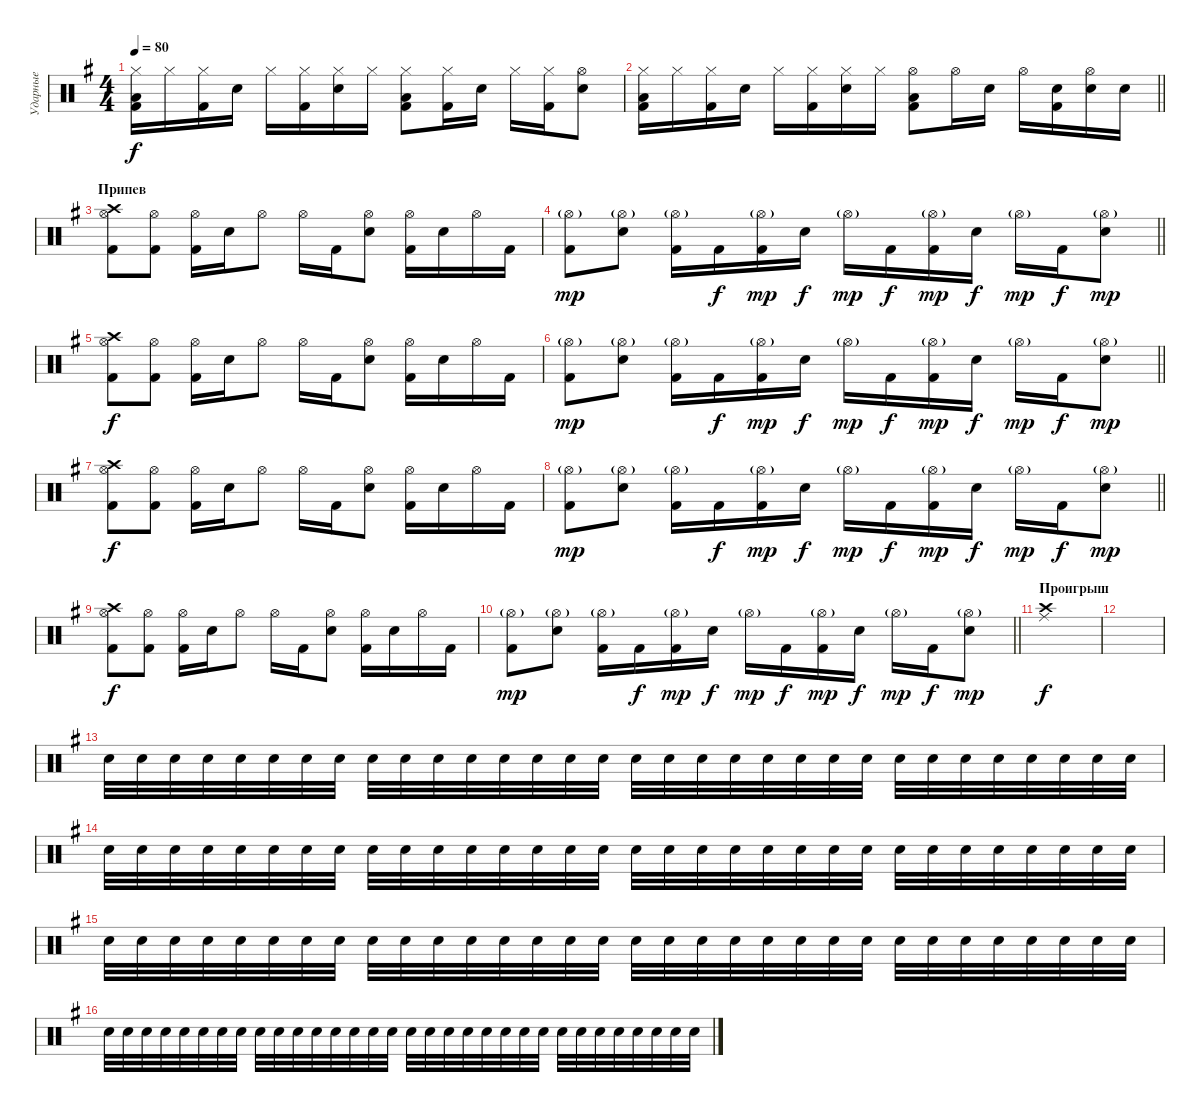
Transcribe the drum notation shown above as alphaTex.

\track ("Ударные" "Ударные") {instrument percussion}
\staff {score}
\articulation defaults
\ts (4 4)
\tempo 80
\clef neutral
\ks eminor
("Hi-Hat (closed)" "Low Tom (hit)" "Kick (hit) 2").16{dy f} "Hi-Hat (closed)".16 ("Hi-Hat (closed)" "Kick (hit) 2").16 "Electric Snare (hit)".16 "Hi-Hat (closed)".16 ("Hi-Hat (closed)" "Kick (hit) 2").16 ("Hi-Hat (closed)" "Electric Snare (hit)").16 "Hi-Hat (closed)".16 ("Hi-Hat (closed)" "Low Tom (hit)" "Kick (hit) 2").8 ("Hi-Hat (closed)" "Kick (hit) 2").16 "Electric Snare (hit)".16 "Hi-Hat (closed)".16 ("Hi-Hat (closed)" "Kick (hit) 2").16 ("Hi-Hat (open)" "Electric Snare (hit)").8 |
\barLineRight lightlight
("Hi-Hat (closed)" "Low Tom (hit)" "Kick (hit) 2").16 "Hi-Hat (closed)".16 ("Hi-Hat (closed)" "Kick (hit) 2").16 "Electric Snare (hit)".16 "Hi-Hat (closed)".16 ("Hi-Hat (closed)" "Kick (hit) 2").16 ("Hi-Hat (closed)" "Electric Snare (hit)").16 "Hi-Hat (closed)".16 ("Hi-Hat (open)" "Low Tom (hit)" "Kick (hit) 2").8 "Hi-Hat (open)".16 "Electric Snare (hit)".16 "Hi-Hat (open)".16 ("Electric Snare (hit)" "Kick (hit) 2").16 ("Hi-Hat (open)" "Electric Snare (hit)").16 "Electric Snare (hit)".16 |
\section ("" "Припев")
("Crash high (hit)" "Hi-Hat (open)" "Kick (hit) 2").8 ("Hi-Hat (open)" "Kick (hit) 2").8 ("Hi-Hat (open)" "Kick (hit) 2").16 "Electric Snare (hit)".16 "Hi-Hat (open)".8 "Hi-Hat (open)".16 "Kick (hit) 2".16 ("Hi-Hat (open)" "Electric Snare (hit)").8 ("Hi-Hat (open)" "Kick (hit) 2").16 "Electric Snare (hit)".16 "Hi-Hat (open)".16 "Kick (hit) 2".16 |
\barLineRight lightlight
("Hi-Hat (open)"{g} "Kick (hit) 2").8{dy mp} ("Hi-Hat (open)"{g} "Electric Snare (hit)").8 ("Hi-Hat (open)"{g} "Kick (hit) 2").16 "Kick (hit) 2".16{dy f} ("Hi-Hat (open)"{g} "Kick (hit) 2").16{dy mp} "Electric Snare (hit)".16{dy f} "Hi-Hat (open)"{g}.16{dy mp} "Kick (hit) 2".16{dy f} ("Hi-Hat (open)"{g} "Kick (hit) 2").16{dy mp} "Electric Snare (hit)".16{dy f} "Hi-Hat (open)"{g}.16{dy mp} "Kick (hit) 2".16{dy f} ("Hi-Hat (open)"{g} "Electric Snare (hit)").8{dy mp} |
("Crash high (hit)" "Hi-Hat (open)" "Kick (hit) 2").8{dy f} ("Hi-Hat (open)" "Kick (hit) 2").8 ("Hi-Hat (open)" "Kick (hit) 2").16 "Electric Snare (hit)".16 "Hi-Hat (open)".8 "Hi-Hat (open)".16 "Kick (hit) 2".16 ("Hi-Hat (open)" "Electric Snare (hit)").8 ("Hi-Hat (open)" "Kick (hit) 2").16 "Electric Snare (hit)".16 "Hi-Hat (open)".16 "Kick (hit) 2".16 |
\barLineRight lightlight
("Hi-Hat (open)"{g} "Kick (hit) 2").8{dy mp} ("Hi-Hat (open)"{g} "Electric Snare (hit)").8 ("Hi-Hat (open)"{g} "Kick (hit) 2").16 "Kick (hit) 2".16{dy f} ("Hi-Hat (open)"{g} "Kick (hit) 2").16{dy mp} "Electric Snare (hit)".16{dy f} "Hi-Hat (open)"{g}.16{dy mp} "Kick (hit) 2".16{dy f} ("Hi-Hat (open)"{g} "Kick (hit) 2").16{dy mp} "Electric Snare (hit)".16{dy f} "Hi-Hat (open)"{g}.16{dy mp} "Kick (hit) 2".16{dy f} ("Hi-Hat (open)"{g} "Electric Snare (hit)").8{dy mp} |
("Crash high (hit)" "Hi-Hat (open)" "Kick (hit) 2").8{dy f} ("Hi-Hat (open)" "Kick (hit) 2").8 ("Hi-Hat (open)" "Kick (hit) 2").16 "Electric Snare (hit)".16 "Hi-Hat (open)".8 "Hi-Hat (open)".16 "Kick (hit) 2".16 ("Hi-Hat (open)" "Electric Snare (hit)").8 ("Hi-Hat (open)" "Kick (hit) 2").16 "Electric Snare (hit)".16 "Hi-Hat (open)".16 "Kick (hit) 2".16 |
\barLineRight lightlight
("Hi-Hat (open)"{g} "Kick (hit) 2").8{dy mp} ("Hi-Hat (open)"{g} "Electric Snare (hit)").8 ("Hi-Hat (open)"{g} "Kick (hit) 2").16 "Kick (hit) 2".16{dy f} ("Hi-Hat (open)"{g} "Kick (hit) 2").16{dy mp} "Electric Snare (hit)".16{dy f} "Hi-Hat (open)"{g}.16{dy mp} "Kick (hit) 2".16{dy f} ("Hi-Hat (open)"{g} "Kick (hit) 2").16{dy mp} "Electric Snare (hit)".16{dy f} "Hi-Hat (open)"{g}.16{dy mp} "Kick (hit) 2".16{dy f} ("Hi-Hat (open)"{g} "Electric Snare (hit)").8{dy mp} |
("Crash high (hit)" "Hi-Hat (open)" "Kick (hit) 2").8{dy f} ("Hi-Hat (open)" "Kick (hit) 2").8 ("Hi-Hat (open)" "Kick (hit) 2").16 "Electric Snare (hit)".16 "Hi-Hat (open)".8 "Hi-Hat (open)".16 "Kick (hit) 2".16 ("Hi-Hat (open)" "Electric Snare (hit)").8 ("Hi-Hat (open)" "Kick (hit) 2").16 "Electric Snare (hit)".16 "Hi-Hat (open)".16 "Kick (hit) 2".16 |
\barLineRight lightlight
("Hi-Hat (open)"{g} "Kick (hit) 2").8{dy mp} ("Hi-Hat (open)"{g} "Electric Snare (hit)").8 ("Hi-Hat (open)"{g} "Kick (hit) 2").16 "Kick (hit) 2".16{dy f} ("Hi-Hat (open)"{g} "Kick (hit) 2").16{dy mp} "Electric Snare (hit)".16{dy f} "Hi-Hat (open)"{g}.16{dy mp} "Kick (hit) 2".16{dy f} ("Hi-Hat (open)"{g} "Kick (hit) 2").16{dy mp} "Electric Snare (hit)".16{dy f} "Hi-Hat (open)"{g}.16{dy mp} "Kick (hit) 2".16{dy f} ("Hi-Hat (open)"{g} "Electric Snare (hit)").8{dy mp} |
\section ("" "Проигрыш")
("Crash high (hit)" "Ride (middle)").1{dy f} |
|
"Electric Snare (hit)".32{volume 10} "Electric Snare (hit)".32 "Electric Snare (hit)".32 "Electric Snare (hit)".32 "Electric Snare (hit)".32 "Electric Snare (hit)".32 "Electric Snare (hit)".32 "Electric Snare (hit)".32 "Electric Snare (hit)".32 "Electric Snare (hit)".32 "Electric Snare (hit)".32 "Electric Snare (hit)".32 "Electric Snare (hit)".32 "Electric Snare (hit)".32 "Electric Snare (hit)".32 "Electric Snare (hit)".32 "Electric Snare (hit)".32 "Electric Snare (hit)".32 "Electric Snare (hit)".32 "Electric Snare (hit)".32 "Electric Snare (hit)".32 "Electric Snare (hit)".32 "Electric Snare (hit)".32 "Electric Snare (hit)".32 "Electric Snare (hit)".32 "Electric Snare (hit)".32 "Electric Snare (hit)".32 "Electric Snare (hit)".32 "Electric Snare (hit)".32 "Electric Snare (hit)".32 "Electric Snare (hit)".32 "Electric Snare (hit)".32 |
"Electric Snare (hit)".32 "Electric Snare (hit)".32 "Electric Snare (hit)".32 "Electric Snare (hit)".32 "Electric Snare (hit)".32 "Electric Snare (hit)".32 "Electric Snare (hit)".32 "Electric Snare (hit)".32 "Electric Snare (hit)".32 "Electric Snare (hit)".32 "Electric Snare (hit)".32 "Electric Snare (hit)".32 "Electric Snare (hit)".32 "Electric Snare (hit)".32 "Electric Snare (hit)".32 "Electric Snare (hit)".32 "Electric Snare (hit)".32 "Electric Snare (hit)".32 "Electric Snare (hit)".32 "Electric Snare (hit)".32 "Electric Snare (hit)".32 "Electric Snare (hit)".32 "Electric Snare (hit)".32 "Electric Snare (hit)".32 "Electric Snare (hit)".32 "Electric Snare (hit)".32 "Electric Snare (hit)".32 "Electric Snare (hit)".32 "Electric Snare (hit)".32 "Electric Snare (hit)".32 "Electric Snare (hit)".32 "Electric Snare (hit)".32 |
"Electric Snare (hit)".32 "Electric Snare (hit)".32 "Electric Snare (hit)".32 "Electric Snare (hit)".32 "Electric Snare (hit)".32 "Electric Snare (hit)".32 "Electric Snare (hit)".32 "Electric Snare (hit)".32 "Electric Snare (hit)".32 "Electric Snare (hit)".32 "Electric Snare (hit)".32 "Electric Snare (hit)".32 "Electric Snare (hit)".32 "Electric Snare (hit)".32 "Electric Snare (hit)".32 "Electric Snare (hit)".32 "Electric Snare (hit)".32 "Electric Snare (hit)".32 "Electric Snare (hit)".32 "Electric Snare (hit)".32 "Electric Snare (hit)".32 "Electric Snare (hit)".32 "Electric Snare (hit)".32 "Electric Snare (hit)".32 "Electric Snare (hit)".32 "Electric Snare (hit)".32 "Electric Snare (hit)".32 "Electric Snare (hit)".32 "Electric Snare (hit)".32 "Electric Snare (hit)".32 "Electric Snare (hit)".32 "Electric Snare (hit)".32 |
"Electric Snare (hit)".32 "Electric Snare (hit)".32 "Electric Snare (hit)".32 "Electric Snare (hit)".32 "Electric Snare (hit)".32 "Electric Snare (hit)".32 "Electric Snare (hit)".32 "Electric Snare (hit)".32 "Electric Snare (hit)".32 "Electric Snare (hit)".32 "Electric Snare (hit)".32 "Electric Snare (hit)".32 "Electric Snare (hit)".32 "Electric Snare (hit)".32 "Electric Snare (hit)".32 "Electric Snare (hit)".32 "Electric Snare (hit)".32 "Electric Snare (hit)".32 "Electric Snare (hit)".32 "Electric Snare (hit)".32 "Electric Snare (hit)".32 "Electric Snare (hit)".32 "Electric Snare (hit)".32 "Electric Snare (hit)".32 "Electric Snare (hit)".32 "Electric Snare (hit)".32 "Electric Snare (hit)".32 "Electric Snare (hit)".32 "Electric Snare (hit)".32 "Electric Snare (hit)".32 "Electric Snare (hit)".32 "Electric Snare (hit)".32
